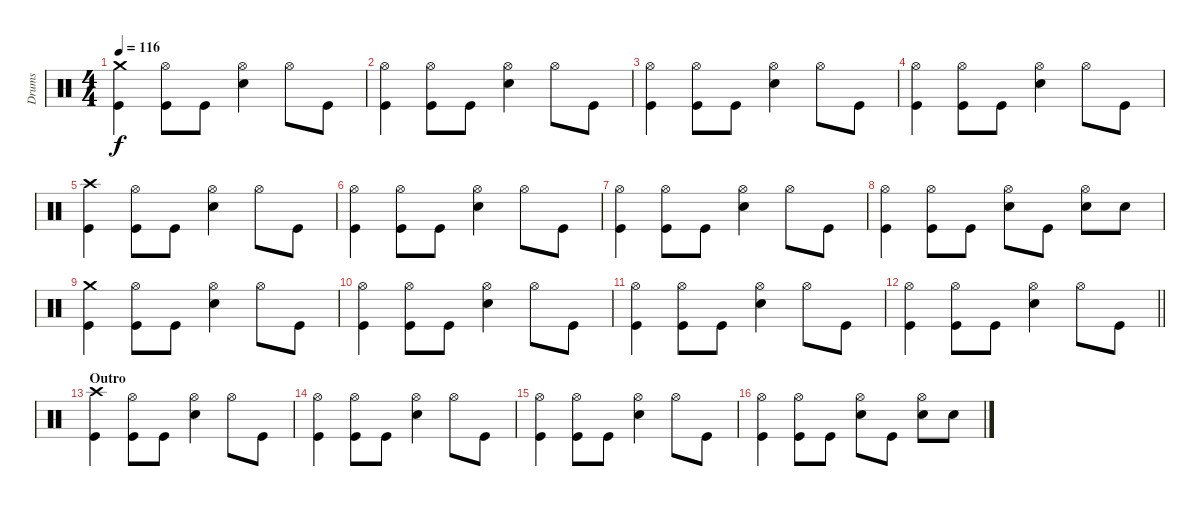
\track ("Drums" "Drums") {instrument percussion}
\staff {score}
\articulation defaults
\ts (4 4)
\tempo 116
\clef neutral
\ks c
("Crash medium (hit)" "Kick (hit)").4{dy f} ("Hi-Hat (open)" "Kick (hit)").8 "Kick (hit)".8 ("Hi-Hat (open)" "Electric Snare (hit)").4 "Hi-Hat (open)".8 "Kick (hit)".8 |
("Hi-Hat (open)" "Kick (hit)").4 ("Hi-Hat (open)" "Kick (hit)").8 "Kick (hit)".8 ("Hi-Hat (open)" "Electric Snare (hit)").4 "Hi-Hat (open)".8 "Kick (hit)".8 |
("Hi-Hat (open)" "Kick (hit)").4 ("Hi-Hat (open)" "Kick (hit)").8 "Kick (hit)".8 ("Hi-Hat (open)" "Electric Snare (hit)").4 "Hi-Hat (open)".8 "Kick (hit)".8 |
("Hi-Hat (open)" "Kick (hit)").4 ("Hi-Hat (open)" "Kick (hit)").8 "Kick (hit)".8 ("Hi-Hat (open)" "Electric Snare (hit)").4 "Hi-Hat (open)".8 "Kick (hit)".8 |
("Crash high (hit)" "Kick (hit)").4 ("Hi-Hat (open)" "Kick (hit)").8 "Kick (hit)".8 ("Hi-Hat (open)" "Electric Snare (hit)").4 "Hi-Hat (open)".8 "Kick (hit)".8 |
("Hi-Hat (open)" "Kick (hit)").4 ("Hi-Hat (open)" "Kick (hit)").8 "Kick (hit)".8 ("Hi-Hat (open)" "Electric Snare (hit)").4 "Hi-Hat (open)".8 "Kick (hit)".8 |
("Hi-Hat (open)" "Kick (hit)").4 ("Hi-Hat (open)" "Kick (hit)").8 "Kick (hit)".8 ("Hi-Hat (open)" "Electric Snare (hit)").4 "Hi-Hat (open)".8 "Kick (hit)".8 |
("Hi-Hat (open)" "Kick (hit)").4 ("Hi-Hat (open)" "Kick (hit)").8 "Kick (hit)".8 ("Hi-Hat (open)" "Electric Snare (hit)").8 "Kick (hit)".8 ("Hi-Hat (open)" "Electric Snare (hit)").8 "Electric Snare (hit)".8 |
("Crash medium (hit)" "Kick (hit)").4 ("Hi-Hat (open)" "Kick (hit)").8 "Kick (hit)".8 ("Hi-Hat (open)" "Electric Snare (hit)").4 "Hi-Hat (open)".8 "Kick (hit)".8 |
("Hi-Hat (open)" "Kick (hit)").4 ("Hi-Hat (open)" "Kick (hit)").8 "Kick (hit)".8 ("Hi-Hat (open)" "Electric Snare (hit)").4 "Hi-Hat (open)".8 "Kick (hit)".8 |
("Hi-Hat (open)" "Kick (hit)").4 ("Hi-Hat (open)" "Kick (hit)").8 "Kick (hit)".8 ("Hi-Hat (open)" "Electric Snare (hit)").4 "Hi-Hat (open)".8 "Kick (hit)".8 |
\barLineRight lightlight
("Hi-Hat (open)" "Kick (hit)").4 ("Hi-Hat (open)" "Kick (hit)").8 "Kick (hit)".8 ("Hi-Hat (open)" "Electric Snare (hit)").4 "Hi-Hat (open)".8 "Kick (hit)".8 |
\section ("" "Outro")
("Crash high (hit)" "Kick (hit)").4 ("Hi-Hat (open)" "Kick (hit)").8 "Kick (hit)".8 ("Hi-Hat (open)" "Electric Snare (hit)").4 "Hi-Hat (open)".8 "Kick (hit)".8 |
("Hi-Hat (open)" "Kick (hit)").4 ("Hi-Hat (open)" "Kick (hit)").8 "Kick (hit)".8 ("Hi-Hat (open)" "Electric Snare (hit)").4 "Hi-Hat (open)".8 "Kick (hit)".8 |
("Hi-Hat (open)" "Kick (hit)").4 ("Hi-Hat (open)" "Kick (hit)").8 "Kick (hit)".8 ("Hi-Hat (open)" "Electric Snare (hit)").4 "Hi-Hat (open)".8 "Kick (hit)".8 |
("Hi-Hat (open)" "Kick (hit)").4 ("Hi-Hat (open)" "Kick (hit)").8 "Kick (hit)".8 ("Hi-Hat (open)" "Electric Snare (hit)").8 "Kick (hit)".8 ("Hi-Hat (open)" "Electric Snare (hit)").8 "Electric Snare (hit)".8
